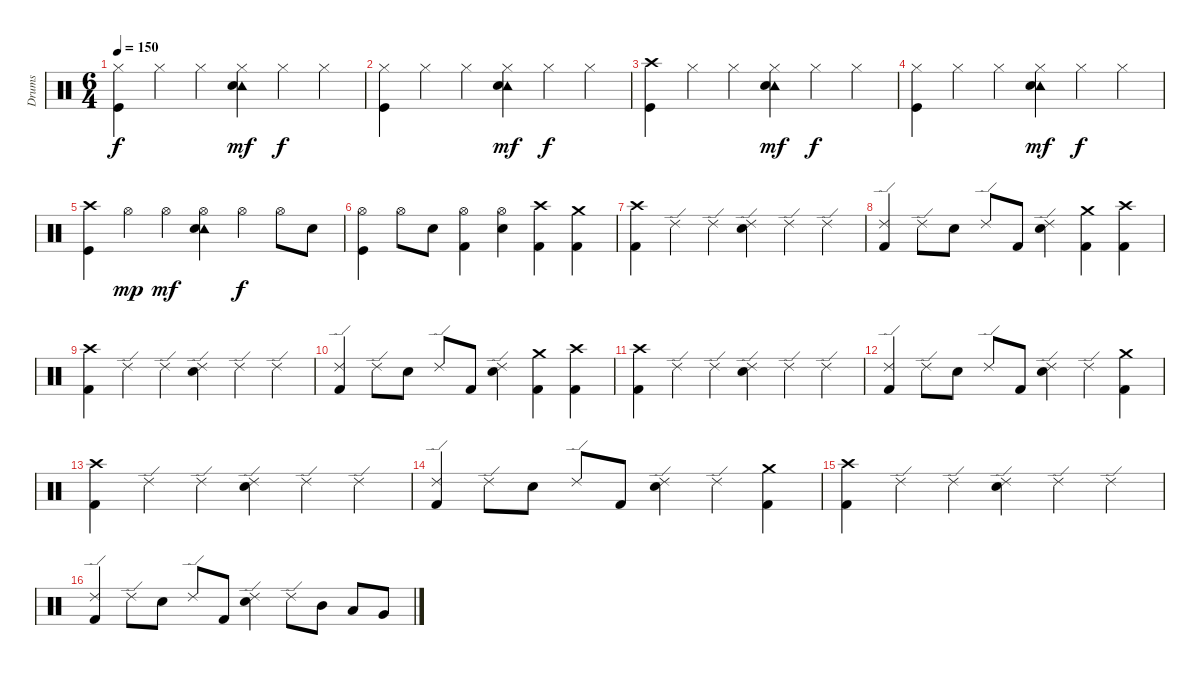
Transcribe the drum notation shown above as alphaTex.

\track ("Drums" "Drums") {instrument percussion}
\staff {score}
\articulation defaults
\ts (6 4)
\tempo 150
\clef neutral
\ks c
("Hi-Hat (closed)" "Kick (hit)").4{dy f} "Hi-Hat (closed)".4 "Hi-Hat (closed)".4 ("Tambourine (hit)" "Hi-Hat (closed)" "Electric Snare (hit)").4{dy mf} "Hi-Hat (closed)".4{dy f} "Hi-Hat (closed)".4 |
("Hi-Hat (closed)" "Kick (hit)").4 "Hi-Hat (closed)".4 "Hi-Hat (closed)".4 ("Tambourine (hit)" "Hi-Hat (closed)" "Electric Snare (hit)").4{dy mf} "Hi-Hat (closed)".4{dy f} "Hi-Hat (closed)".4 |
("Crash high (hit)" "Kick (hit)").4 "Hi-Hat (closed)".4 "Hi-Hat (closed)".4 ("Tambourine (hit)" "Hi-Hat (closed)" "Electric Snare (hit)").4{dy mf} "Hi-Hat (closed)".4{dy f} "Hi-Hat (closed)".4 |
("Hi-Hat (closed)" "Kick (hit)").4 "Hi-Hat (closed)".4 "Hi-Hat (closed)".4 ("Tambourine (hit)" "Hi-Hat (closed)" "Electric Snare (hit)").4{dy mf} "Hi-Hat (closed)".4{dy f} "Hi-Hat (closed)".4 |
("Crash high (hit)" "Kick (hit)").4 "Hi-Hat (open)".4{dy mp} "Hi-Hat (open)".4{dy mf} ("Tambourine (hit)" "Hi-Hat (open)" "Electric Snare (hit)").4 "Hi-Hat (open)".4{dy f} "Hi-Hat (open)".8 "Electric Snare (hit)".8 |
("Hi-Hat (open)" "Kick (hit)").4 "Hi-Hat (open)".8 "Electric Snare (hit)".8 ("Hi-Hat (open)" "Kick (hit) 2").4 ("Hi-Hat (open)" "Electric Snare (hit)").4 ("Crash high (hit)" "Kick (hit) 2").4 ("Crash medium (hit)" "Kick (hit) 2").4 |
("Crash high (hit)" "Kick (hit) 2").4 "Ride (edge) 2".4 "Ride (edge) 2".4 ("Ride (edge) 2" "Electric Snare (hit)").4 "Ride (edge) 2".4 "Ride (edge) 2".4 |
("Ride (edge) 2" "Kick (hit) 2").4 "Ride (edge) 2".8 "Electric Snare (hit)".8 "Ride (edge) 2".8 "Kick (hit) 2".8 ("Ride (edge) 2" "Electric Snare (hit)").4 ("Crash medium (hit)" "Kick (hit) 2").4 ("Crash high (hit)" "Kick (hit) 2").4 |
("Crash high (hit)" "Kick (hit) 2").4 "Ride (edge) 2".4 "Ride (edge) 2".4 ("Ride (edge) 2" "Electric Snare (hit)").4 "Ride (edge) 2".4 "Ride (edge) 2".4 |
("Ride (edge) 2" "Kick (hit) 2").4 "Ride (edge) 2".8 "Electric Snare (hit)".8 "Ride (edge) 2".8 "Kick (hit) 2".8 ("Ride (edge) 2" "Electric Snare (hit)").4 ("Crash medium (hit)" "Kick (hit) 2").4 ("Crash high (hit)" "Kick (hit) 2").4 |
("Crash high (hit)" "Kick (hit) 2").4 "Ride (edge) 2".4 "Ride (edge) 2".4 ("Ride (edge) 2" "Electric Snare (hit)").4 "Ride (edge) 2".4 "Ride (edge) 2".4 |
("Ride (edge) 2" "Kick (hit) 2").4 "Ride (edge) 2".8 "Electric Snare (hit)".8 "Ride (edge) 2".8 "Kick (hit) 2".8 ("Ride (edge) 2" "Electric Snare (hit)").4 "Ride (edge) 2".4 ("Crash medium (hit)" "Kick (hit) 2").4 |
("Crash high (hit)" "Kick (hit) 2").4 "Ride (edge) 2".4 "Ride (edge) 2".4 ("Ride (edge) 2" "Electric Snare (hit)").4 "Ride (edge) 2".4 "Ride (edge) 2".4 |
("Ride (edge) 2" "Kick (hit) 2").4 "Ride (edge) 2".8 "Electric Snare (hit)".8 "Ride (edge) 2".8 "Kick (hit) 2".8 ("Ride (edge) 2" "Electric Snare (hit)").4 "Ride (edge) 2".4 ("Crash medium (hit)" "Kick (hit) 2").4 |
("Crash high (hit)" "Kick (hit) 2").4 "Ride (edge) 2".4 "Ride (edge) 2".4 ("Ride (edge) 2" "Electric Snare (hit)").4 "Ride (edge) 2".4 "Ride (edge) 2".4 |
("Ride (edge) 2" "Kick (hit) 2").4 "Ride (edge) 2".8 "Electric Snare (hit)".8 "Ride (edge) 2".8 "Kick (hit) 2".8 ("Ride (edge) 2" "Electric Snare (hit)").4 "Ride (edge) 2".8 "Mid Tom (hit)".8 "Low Tom (hit)".8 "Very Low Tom (hit)".8
